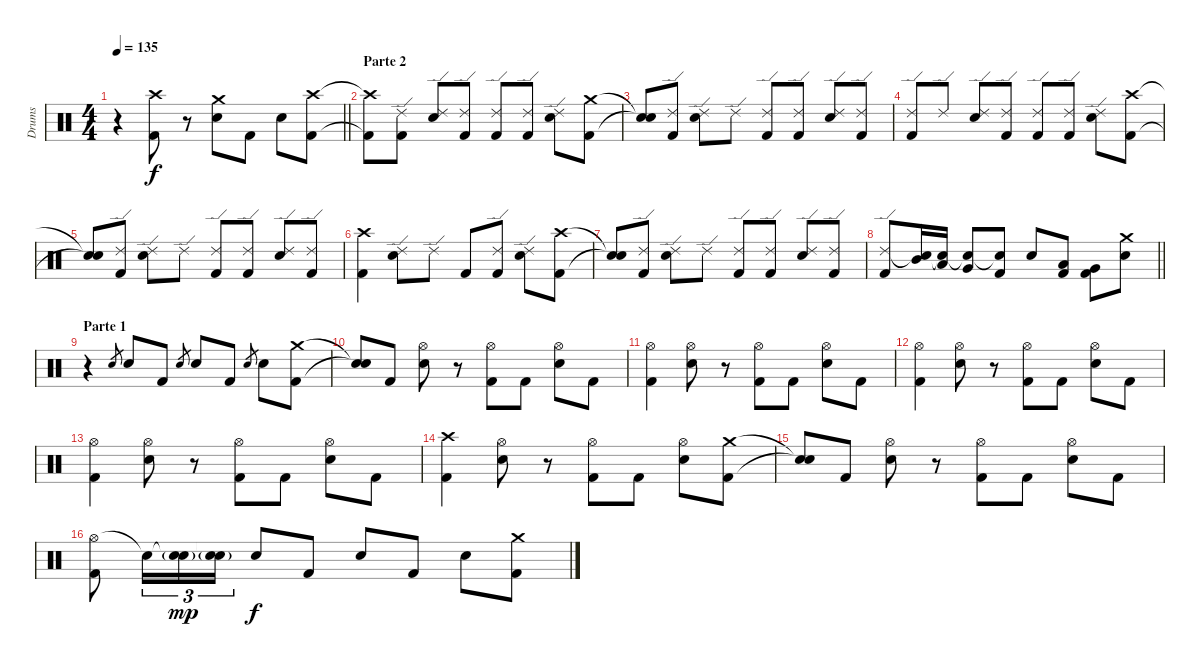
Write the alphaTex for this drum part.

\track ("Drums" "Drums") {instrument percussion}
\staff {score}
\articulation defaults
\ts (4 4)
\tempo 135
\clef neutral
\barLineRight lightlight
\ks c
r.4{dy f} ("Crash high (hit)" "Kick (hit) 2").8 r.8 ("Crash medium (hit)" "Electric Snare (hit)").8 "Kick (hit) 2".8 "Electric Snare (hit)".8 ("Crash high (hit)" "Kick (hit) 2").8 |
\section ("" "Parte 2")
("Crash high (hit)"{t} "Kick (hit) 2"{t}).8 ("Ride (edge) 2" "Kick (hit) 2").8 ("Ride (edge) 2" "Electric Snare (hit)").8 ("Ride (edge) 2" "Kick (hit) 2").8 ("Ride (edge) 2" "Kick (hit) 2").8 ("Ride (edge) 2" "Kick (hit) 2").8 ("Ride (edge) 2" "Electric Snare (hit)").8 ("Crash medium (hit)" "Kick (hit) 2").8 |
("Snare (hit)"{t} "Snare (hit)"{t}).8 ("Ride (edge) 2" "Kick (hit) 2").8 ("Ride (edge) 2" "Electric Snare (hit)").8 "Ride (edge) 2".8 ("Ride (edge) 2" "Kick (hit) 2").8 ("Ride (edge) 2" "Kick (hit) 2").8 ("Ride (edge) 2" "Electric Snare (hit)").8 ("Ride (edge) 2" "Kick (hit) 2").8 |
("Ride (edge) 2" "Kick (hit) 2").8 "Ride (edge) 2".8 ("Ride (edge) 2" "Electric Snare (hit)").8 ("Ride (edge) 2" "Kick (hit) 2").8 ("Ride (edge) 2" "Kick (hit) 2").8 ("Ride (edge) 2" "Kick (hit) 2").8 ("Ride (edge) 2" "Electric Snare (hit)").8 ("Crash high (hit)" "Kick (hit) 2").8 |
("Snare (hit)"{t} "Snare (hit)"{t}).8 ("Ride (edge) 2" "Kick (hit) 2").8 ("Ride (edge) 2" "Electric Snare (hit)").8 "Ride (edge) 2".8 ("Ride (edge) 2" "Kick (hit) 2").8 ("Ride (edge) 2" "Kick (hit) 2").8 ("Ride (edge) 2" "Electric Snare (hit)").8 ("Ride (edge) 2" "Kick (hit) 2").8 |
("Crash high (hit)" "Kick (hit) 2").4 ("Ride (edge) 2" "Electric Snare (hit)").8 "Ride (edge) 2".8 "Kick (hit) 2".8 ("Ride (edge) 2" "Kick (hit) 2").8 ("Ride (edge) 2" "Electric Snare (hit)").8 ("Crash high (hit)" "Kick (hit) 2").8 |
("Snare (hit)"{t} "Snare (hit)"{t}).8 ("Ride (edge) 2" "Kick (hit) 2").8 ("Ride (edge) 2" "Electric Snare (hit)").8 "Ride (edge) 2".8 ("Ride (edge) 2" "Kick (hit) 2").8 ("Ride (edge) 2" "Kick (hit) 2").8 ("Ride (edge) 2" "Electric Snare (hit)").8 ("Ride (edge) 2" "Kick (hit) 2").8 |
\barLineRight lightlight
("Ride (edge) 2" "Kick (hit) 2").8 ("Snare (hit)"{t} "Mid Tom (hit)").16 ("Snare (hit)"{t} "Low Tom (hit)").16 ("Snare (hit)"{t} "Very Low Tom (hit)").8 ("Snare (hit)"{t} "Kick (hit) 2").8 "Electric Snare (hit)".8 ("Low Tom (hit)" "Kick (hit) 2").8 ("Very Low Tom (hit)" "Kick (hit) 2").8 ("Crash medium (hit)" "Electric Snare (hit)").8 |
\section ("" "Parte 1")
r.4 "Electric Snare (hit)".8{gr} "Electric Snare (hit)".8 "Kick (hit) 2".8 "Electric Snare (hit)".8{gr} "Electric Snare (hit)".8 "Kick (hit) 2".8 "Electric Snare (hit)".8{gr} "Electric Snare (hit)".8 ("Crash medium (hit)" "Kick (hit) 2").8 |
("Snare (hit)"{t} "Snare (hit)"{t}).8 "Kick (hit) 2".8 ("Hi-Hat (open)" "Electric Snare (hit)").8 r.8 ("Hi-Hat (open)" "Kick (hit) 2").8 "Kick (hit) 2".8 ("Hi-Hat (open)" "Electric Snare (hit)").8 "Kick (hit) 2".8 |
("Hi-Hat (open)" "Kick (hit) 2").4 ("Hi-Hat (open)" "Electric Snare (hit)").8 r.8 ("Hi-Hat (open)" "Kick (hit) 2").8 "Kick (hit) 2".8 ("Hi-Hat (open)" "Electric Snare (hit)").8 "Kick (hit) 2".8 |
("Hi-Hat (open)" "Kick (hit) 2").4 ("Hi-Hat (open)" "Electric Snare (hit)").8 r.8 ("Hi-Hat (open)" "Kick (hit) 2").8 "Kick (hit) 2".8 ("Hi-Hat (open)" "Electric Snare (hit)").8 "Kick (hit) 2".8 |
("Hi-Hat (open)" "Kick (hit) 2").4 ("Hi-Hat (open)" "Electric Snare (hit)").8 r.8 ("Hi-Hat (open)" "Kick (hit) 2").8 "Kick (hit) 2".8 ("Hi-Hat (open)" "Electric Snare (hit)").8 "Kick (hit) 2".8 |
("Crash high (hit)" "Kick (hit) 2").4 ("Hi-Hat (open)" "Electric Snare (hit)").8 r.8 ("Hi-Hat (open)" "Kick (hit) 2").8 "Kick (hit) 2".8 ("Hi-Hat (open)" "Electric Snare (hit)").8 ("Crash medium (hit)" "Kick (hit) 2").8 |
("Snare (hit)"{t} "Snare (hit)"{t}).8 "Kick (hit) 2".8 ("Hi-Hat (open)" "Electric Snare (hit)").8 r.8 ("Hi-Hat (open)" "Kick (hit) 2").8 "Kick (hit) 2".8 ("Hi-Hat (open)" "Electric Snare (hit)").8 "Kick (hit) 2".8 |
("Hi-Hat (open)" "Kick (hit) 2").8 "Snare (hit)"{t}.16{tu (3 2)} ("Snare (hit)"{t} "Electric Snare (hit)"{g}).16{tu (3 2) dy mp} ("Snare (hit)"{t} "Electric Snare (hit)"{g}).16{tu (3 2)} "Electric Snare (hit)".8{dy f} "Kick (hit) 2".8 "Electric Snare (hit)".8 "Kick (hit) 2".8 "Electric Snare (hit)".8 ("Crash medium (hit)" "Kick (hit) 2").8
